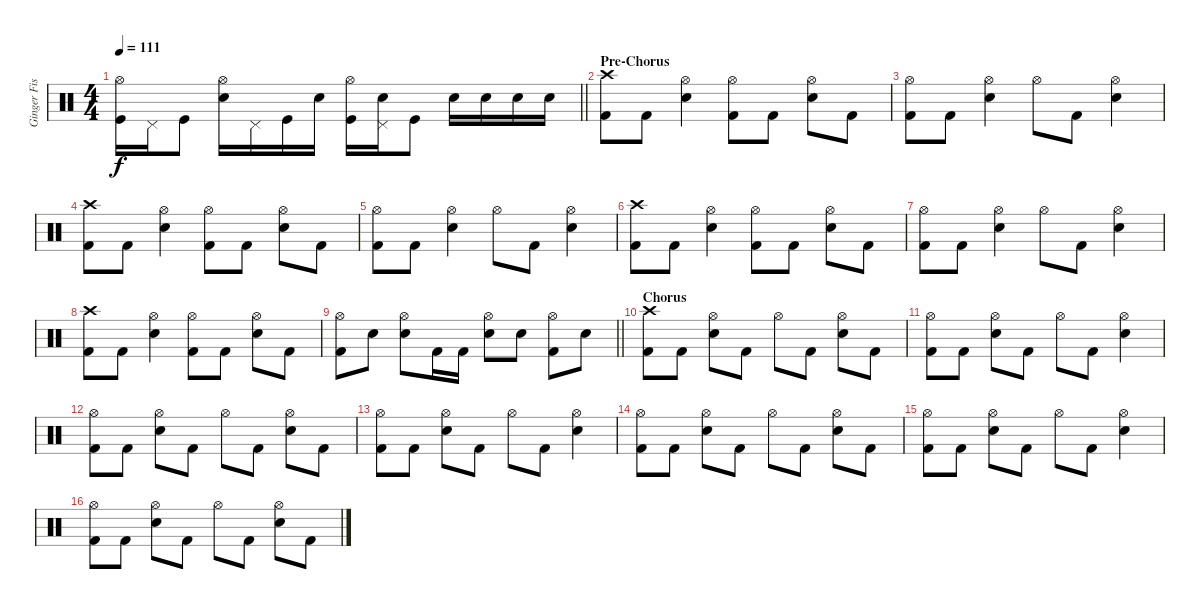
\track ("Ginger Fish" "Ginger Fis") {instrument percussion}
\staff {score}
\articulation defaults
\ts (4 4)
\tempo 111
\clef neutral
\barLineRight lightlight
\ks c
("Hi-Hat (open)" "Kick (hit)").16{dy f} "Pedal Hi-Hat (hit)".16 "Kick (hit)".8 ("Hi-Hat (open)" "Electric Snare (hit)").16 "Pedal Hi-Hat (hit)".16 "Kick (hit)".16 "Electric Snare (hit)".16 ("Hi-Hat (open)" "Kick (hit)").16 ("Pedal Hi-Hat (hit)" "Electric Snare (hit)").16 "Kick (hit)".8 "Snare (hit) 2".16 "Snare (hit) 2".16 "Snare (hit) 2".16 "Snare (hit) 2".16 |
\section ("" "Pre-Chorus")
("Crash high (hit)" "Kick (hit) 2").8 "Kick (hit) 2".8 ("Hi-Hat (open)" "Snare (hit) 2").4 ("Hi-Hat (open)" "Kick (hit) 2").8 "Kick (hit) 2".8 ("Hi-Hat (open)" "Snare (hit) 2").8 "Kick (hit) 2".8 |
("Hi-Hat (open)" "Kick (hit) 2").8 "Kick (hit) 2".8 ("Hi-Hat (open)" "Snare (hit) 2").4 "Hi-Hat (open)".8 "Kick (hit) 2".8 ("Hi-Hat (open)" "Snare (hit) 2").4 |
("Crash high (hit)" "Kick (hit) 2").8 "Kick (hit) 2".8 ("Hi-Hat (open)" "Snare (hit) 2").4 ("Hi-Hat (open)" "Kick (hit) 2").8 "Kick (hit) 2".8 ("Hi-Hat (open)" "Snare (hit) 2").8 "Kick (hit) 2".8 |
("Hi-Hat (open)" "Kick (hit) 2").8 "Kick (hit) 2".8 ("Hi-Hat (open)" "Snare (hit) 2").4 "Hi-Hat (open)".8 "Kick (hit) 2".8 ("Hi-Hat (open)" "Snare (hit) 2").4 |
("Crash high (hit)" "Kick (hit) 2").8 "Kick (hit) 2".8 ("Hi-Hat (open)" "Snare (hit) 2").4 ("Hi-Hat (open)" "Kick (hit) 2").8 "Kick (hit) 2".8 ("Hi-Hat (open)" "Snare (hit) 2").8 "Kick (hit) 2".8 |
("Hi-Hat (open)" "Kick (hit) 2").8 "Kick (hit) 2".8 ("Hi-Hat (open)" "Snare (hit) 2").4 "Hi-Hat (open)".8 "Kick (hit) 2".8 ("Hi-Hat (open)" "Snare (hit) 2").4 |
("Crash high (hit)" "Kick (hit) 2").8 "Kick (hit) 2".8 ("Hi-Hat (open)" "Snare (hit) 2").4 ("Hi-Hat (open)" "Kick (hit) 2").8 "Kick (hit) 2".8 ("Hi-Hat (open)" "Snare (hit) 2").8 "Kick (hit) 2".8 |
\barLineRight lightlight
("Hi-Hat (open)" "Kick (hit) 2").8 "Snare (hit) 2".8 ("Hi-Hat (open)" "Snare (hit) 2").8 "Kick (hit) 2".16 "Kick (hit) 2".16 ("Hi-Hat (open)" "Snare (hit) 2").8 "Snare (hit) 2".8 ("Hi-Hat (open)" "Kick (hit) 2").8 "Snare (hit) 2".8 |
\section ("" "Chorus")
("Crash high (hit)" "Kick (hit) 2").8 "Kick (hit) 2".8 ("Hi-Hat (open)" "Snare (hit) 2").8 "Kick (hit) 2".8 "Hi-Hat (open)".8 "Kick (hit) 2".8 ("Hi-Hat (open)" "Snare (hit) 2").8 "Kick (hit) 2".8 |
("Hi-Hat (open)" "Kick (hit) 2").8 "Kick (hit) 2".8 ("Hi-Hat (open)" "Snare (hit) 2").8 "Kick (hit) 2".8 "Hi-Hat (open)".8 "Kick (hit) 2".8 ("Hi-Hat (open)" "Snare (hit) 2").4 |
("Hi-Hat (open)" "Kick (hit) 2").8 "Kick (hit) 2".8 ("Hi-Hat (open)" "Snare (hit) 2").8 "Kick (hit) 2".8 "Hi-Hat (open)".8 "Kick (hit) 2".8 ("Hi-Hat (open)" "Snare (hit) 2").8 "Kick (hit) 2".8 |
("Hi-Hat (open)" "Kick (hit) 2").8 "Kick (hit) 2".8 ("Hi-Hat (open)" "Snare (hit) 2").8 "Kick (hit) 2".8 "Hi-Hat (open)".8 "Kick (hit) 2".8 ("Hi-Hat (open)" "Snare (hit) 2").4 |
("Hi-Hat (open)" "Kick (hit) 2").8 "Kick (hit) 2".8 ("Hi-Hat (open)" "Snare (hit) 2").8 "Kick (hit) 2".8 "Hi-Hat (open)".8 "Kick (hit) 2".8 ("Hi-Hat (open)" "Snare (hit) 2").8 "Kick (hit) 2".8 |
("Hi-Hat (open)" "Kick (hit) 2").8 "Kick (hit) 2".8 ("Hi-Hat (open)" "Snare (hit) 2").8 "Kick (hit) 2".8 "Hi-Hat (open)".8 "Kick (hit) 2".8 ("Hi-Hat (open)" "Snare (hit) 2").4 |
("Hi-Hat (open)" "Kick (hit) 2").8 "Kick (hit) 2".8 ("Hi-Hat (open)" "Snare (hit) 2").8 "Kick (hit) 2".8 "Hi-Hat (open)".8 "Kick (hit) 2".8 ("Hi-Hat (open)" "Snare (hit) 2").8 "Kick (hit) 2".8
